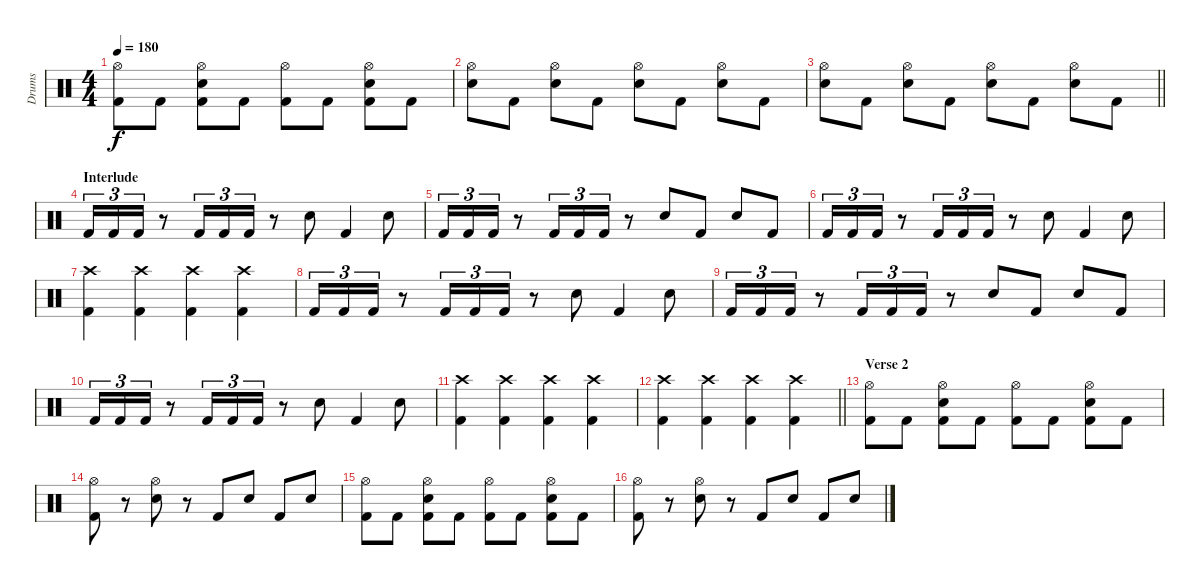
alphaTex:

\track ("Drums" "Drums") {instrument percussion}
\staff {score}
\articulation defaults
\ts (4 4)
\tempo 180
\clef neutral
\ks c
("Hi-Hat (open)" "Kick (hit) 2").8{dy f} "Kick (hit) 2".8 ("Hi-Hat (open)" "Electric Snare (hit)" "Kick (hit) 2").8 "Kick (hit) 2".8 ("Hi-Hat (open)" "Kick (hit) 2").8 "Kick (hit) 2".8 ("Hi-Hat (open)" "Electric Snare (hit)" "Kick (hit) 2").8 "Kick (hit) 2".8 |
("Hi-Hat (open)" "Electric Snare (hit)").8 "Kick (hit) 2".8 ("Hi-Hat (open)" "Electric Snare (hit)").8 "Kick (hit) 2".8 ("Hi-Hat (open)" "Electric Snare (hit)").8 "Kick (hit) 2".8 ("Hi-Hat (open)" "Electric Snare (hit)").8 "Kick (hit) 2".8 |
\barLineRight lightlight
("Hi-Hat (open)" "Electric Snare (hit)").8 "Kick (hit) 2".8 ("Hi-Hat (open)" "Electric Snare (hit)").8 "Kick (hit) 2".8 ("Hi-Hat (open)" "Electric Snare (hit)").8 "Kick (hit) 2".8 ("Hi-Hat (open)" "Electric Snare (hit)").8 "Kick (hit) 2".8 |
\section ("" "Interlude")
"Kick (hit) 2".16{tu (3 2)} "Kick (hit) 2".16{tu (3 2)} "Kick (hit) 2".16{tu (3 2)} r.8 "Kick (hit) 2".16{tu (3 2)} "Kick (hit) 2".16{tu (3 2)} "Kick (hit) 2".16{tu (3 2)} r.8 "Electric Snare (hit)".8 "Kick (hit) 2".4 "Electric Snare (hit)".8 |
"Kick (hit) 2".16{tu (3 2)} "Kick (hit) 2".16{tu (3 2)} "Kick (hit) 2".16{tu (3 2)} r.8 "Kick (hit) 2".16{tu (3 2)} "Kick (hit) 2".16{tu (3 2)} "Kick (hit) 2".16{tu (3 2)} r.8 "Electric Snare (hit)".8 "Kick (hit) 2".8 "Electric Snare (hit)".8 "Kick (hit) 2".8 |
"Kick (hit) 2".16{tu (3 2)} "Kick (hit) 2".16{tu (3 2)} "Kick (hit) 2".16{tu (3 2)} r.8 "Kick (hit) 2".16{tu (3 2)} "Kick (hit) 2".16{tu (3 2)} "Kick (hit) 2".16{tu (3 2)} r.8 "Electric Snare (hit)".8 "Kick (hit) 2".4 "Electric Snare (hit)".8 |
("Crash high (hit)" "Kick (hit) 2").4 ("Crash high (hit)" "Kick (hit) 2").4 ("Crash high (hit)" "Kick (hit) 2").4 ("Crash high (hit)" "Kick (hit) 2").4 |
"Kick (hit) 2".16{tu (3 2)} "Kick (hit) 2".16{tu (3 2)} "Kick (hit) 2".16{tu (3 2)} r.8 "Kick (hit) 2".16{tu (3 2)} "Kick (hit) 2".16{tu (3 2)} "Kick (hit) 2".16{tu (3 2)} r.8 "Electric Snare (hit)".8 "Kick (hit) 2".4 "Electric Snare (hit)".8 |
"Kick (hit) 2".16{tu (3 2)} "Kick (hit) 2".16{tu (3 2)} "Kick (hit) 2".16{tu (3 2)} r.8 "Kick (hit) 2".16{tu (3 2)} "Kick (hit) 2".16{tu (3 2)} "Kick (hit) 2".16{tu (3 2)} r.8 "Electric Snare (hit)".8 "Kick (hit) 2".8 "Electric Snare (hit)".8 "Kick (hit) 2".8 |
"Kick (hit) 2".16{tu (3 2)} "Kick (hit) 2".16{tu (3 2)} "Kick (hit) 2".16{tu (3 2)} r.8 "Kick (hit) 2".16{tu (3 2)} "Kick (hit) 2".16{tu (3 2)} "Kick (hit) 2".16{tu (3 2)} r.8 "Electric Snare (hit)".8 "Kick (hit) 2".4 "Electric Snare (hit)".8 |
("Crash high (hit)" "Kick (hit) 2").4 ("Crash high (hit)" "Kick (hit) 2").4 ("Crash high (hit)" "Kick (hit) 2").4 ("Crash high (hit)" "Kick (hit) 2").4 |
\barLineRight lightlight
("Crash high (hit)" "Kick (hit) 2").4 ("Crash high (hit)" "Kick (hit) 2").4 ("Crash high (hit)" "Kick (hit) 2").4 ("Crash high (hit)" "Kick (hit) 2").4 |
\section ("" "Verse 2")
("Hi-Hat (open)" "Kick (hit) 2").8 "Kick (hit) 2".8 ("Hi-Hat (open)" "Electric Snare (hit)" "Kick (hit) 2").8 "Kick (hit) 2".8 ("Hi-Hat (open)" "Kick (hit) 2").8 "Kick (hit) 2".8 ("Hi-Hat (open)" "Electric Snare (hit)" "Kick (hit) 2").8 "Kick (hit) 2".8 |
("Hi-Hat (open)" "Kick (hit) 2").8 r.8 ("Hi-Hat (open)" "Electric Snare (hit)").8 r.8 "Kick (hit) 2".8 "Electric Snare (hit)".8 "Kick (hit) 2".8 "Electric Snare (hit)".8 |
("Hi-Hat (open)" "Kick (hit) 2").8 "Kick (hit) 2".8 ("Hi-Hat (open)" "Electric Snare (hit)" "Kick (hit) 2").8 "Kick (hit) 2".8 ("Hi-Hat (open)" "Kick (hit) 2").8 "Kick (hit) 2".8 ("Hi-Hat (open)" "Electric Snare (hit)" "Kick (hit) 2").8 "Kick (hit) 2".8 |
("Hi-Hat (open)" "Kick (hit) 2").8 r.8 ("Hi-Hat (open)" "Electric Snare (hit)").8 r.8 "Kick (hit) 2".8 "Electric Snare (hit)".8 "Kick (hit) 2".8 "Electric Snare (hit)".8
